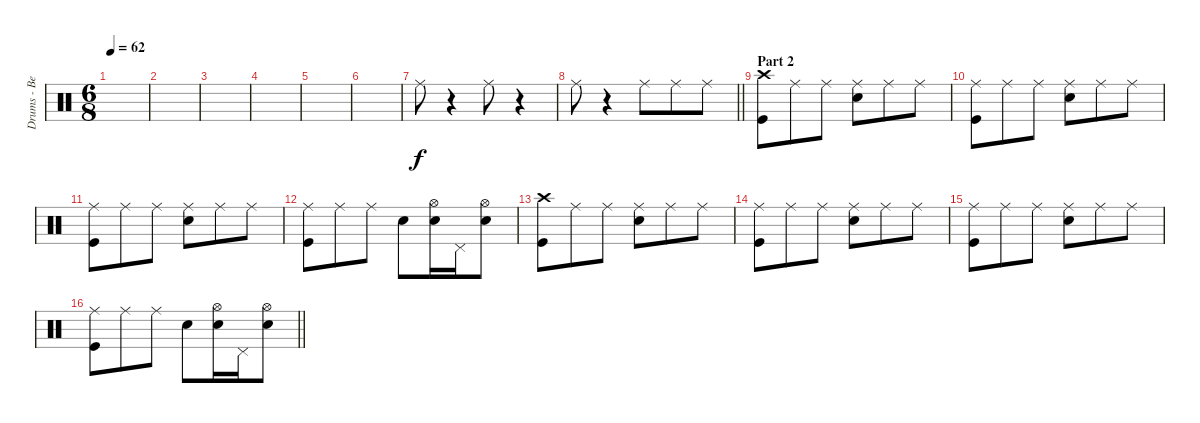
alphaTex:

\track ("Drums - Ben Johnston" "Drums - Be") {instrument percussion}
\staff {score}
\articulation defaults
\ts (6 8)
\tempo 62
\clef neutral
\ks c
|
|
|
|
|
|
"Ride (middle)".8 r.4 "Ride (middle)".8 r.4 |
\barLineRight lightlight "Ride (middle)".8
r.4 "Ride (middle)".8 "Ride (middle)".8 "Ride (middle)".8 |
\section ("" "Part 2")
("Crash high (hit)" "Kick (hit)").8 "Ride (middle)".8 "Ride (middle)".8 ("Ride (middle)" "Snare (hit) 2").8 "Ride (middle)".8 "Ride (middle)".8 |
("Ride (middle)" "Kick (hit)").8 "Ride (middle)".8 "Ride (middle)".8 ("Ride (middle)" "Snare (hit) 2").8 "Ride (middle)".8 "Ride (middle)".8 |
("Ride (middle)" "Kick (hit)").8 "Ride (middle)".8 "Ride (middle)".8 ("Ride (middle)" "Snare (hit) 2").8 "Ride (middle)".8 "Ride (middle)".8 |
("Ride (middle)" "Kick (hit)").8 "Ride (middle)".8 "Ride (middle)".8 "Snare (hit) 2".8 ("Hi-Hat (open)" "Snare (hit) 2").16 "Pedal Hi-Hat (hit)".16 ("Hi-Hat (open)" "Snare (hit) 2").8 |
("Crash high (hit)" "Kick (hit)").8 "Ride (middle)".8 "Ride (middle)".8 ("Ride (middle)" "Snare (hit) 2").8 "Ride (middle)".8 "Ride (middle)".8 |
("Ride (middle)" "Kick (hit)").8 "Ride (middle)".8 "Ride (middle)".8 ("Ride (middle)" "Snare (hit) 2").8 "Ride (middle)".8 "Ride (middle)".8 |
("Ride (middle)" "Kick (hit)").8 "Ride (middle)".8 "Ride (middle)".8 ("Ride (middle)" "Snare (hit) 2").8 "Ride (middle)".8 "Ride (middle)".8 |
\barLineRight lightlight
("Ride (middle)" "Kick (hit)").8 "Ride (middle)".8 "Ride (middle)".8 "Snare (hit) 2".8 ("Hi-Hat (open)" "Snare (hit) 2").16 "Pedal Hi-Hat (hit)".16 ("Hi-Hat (open)" "Snare (hit) 2").8
